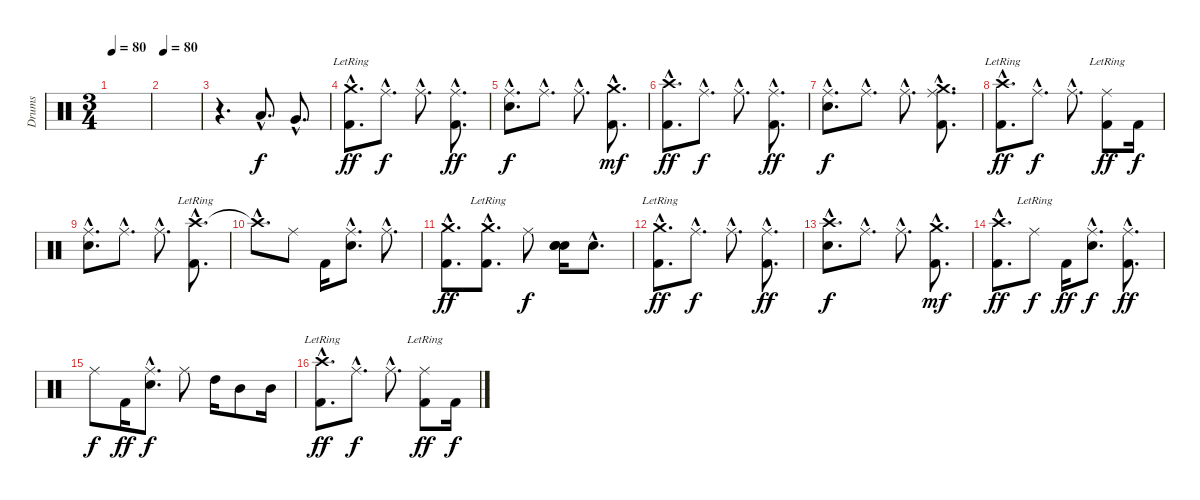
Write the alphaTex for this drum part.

\track ("Drums" "Drums") {instrument percussion}
\staff {score}
\articulation defaults
\ts (3 4)
\tempo 80
\clef neutral
\ks c
|
\tempo 80
|
r.4{d} "Low Tom (hit)"{hac}.8{d} "Very Low Tom (hit)"{hac}.8{d} |
("Crash medium (hit)"{hac lr} "Kick (hit) 2"{hac}).8{d dy ff} "Ride (middle)"{hac}.8{d dy f} "Ride (middle)"{hac}.8{d} ("Ride (middle)"{hac} "Kick (hit) 2"{hac}).8{d dy ff} |
("Ride (middle)"{hac} "Snare (hit) 2"{hac}).8{d dy f} "Ride (middle)"{hac}.8{d} "Ride (middle)"{hac}.8{d} ("Crash medium (hit)"{hac} "Kick (hit) 2"{hac}).8{d dy mf} |
("Crash high (hit)"{hac} "Kick (hit) 2"{hac}).8{d dy ff} "Ride (middle)"{hac}.8{d dy f} "Ride (middle)"{hac}.8{d} ("Ride (middle)"{hac} "Kick (hit) 2"{hac}).8{d dy ff} |
("Ride (middle)"{hac} "Snare (hit) 2"{hac}).8{d dy f} "Ride (middle)"{hac}.8{d} "Ride (middle)"{hac}.8{d} ("Crash medium (hit)"{hac} "Ride (middle)"{hac} "Kick (hit) 2"{hac}).8{d} |
("Crash high (hit)"{hac lr} "Kick (hit) 2"{hac}).8{d dy ff} "Ride (middle)"{hac}.8{d dy f} "Ride (middle)"{hac}.8{d} ("Ride (middle)"{lr} "Kick (hit) 2").8{dy ff} "Kick (hit) 2".16{dy f} |
("Ride (middle)"{hac} "Snare (hit) 2"{hac}).8{d} "Ride (middle)"{hac}.8{d} "Ride (middle)"{hac}.8{d} ("Crash high (hit)"{hac lr} "Kick (hit) 2"{hac}).8{d} |
"Crash high (hit)"{hac t}.8{d} "Ride (middle)".8 "Kick (hit) 2".16 ("Ride (middle)"{hac} "Snare (hit) 2"{hac}).8{d} "Ride (middle)"{hac}.8{d} |
("Crash medium (hit)"{hac} "Kick (hit) 2"{hac}).8{d dy ff} ("Crash medium (hit)"{hac lr} "Kick (hit) 2"{hac}).8{d} "Ride (middle)".8{dy f} ("Snare (hit) 2" "Snare (hit) 2" "Snare (hit) 2").16{bd 480} "Snare (hit) 2"{hac}.8{d} |
("Crash medium (hit)"{hac lr} "Kick (hit) 2"{hac}).8{d dy ff} "Ride (middle)"{hac}.8{d dy f} "Ride (middle)"{hac}.8{d} ("Ride (middle)"{hac} "Kick (hit) 2"{hac}).8{d dy ff} |
("Crash high (hit)"{hac} "Snare (hit) 2"{hac}).8{d dy f} "Ride (middle)"{hac}.8{d} "Ride (middle)"{hac}.8{d} ("Crash medium (hit)"{hac} "Kick (hit) 2"{hac}).8{d dy mf} |
("Crash high (hit)"{hac} "Kick (hit) 2"{hac}).8{d dy ff} "Ride (middle)"{lr}.8{dy f} "Kick (hit) 2".16{dy ff} ("Ride (middle)"{hac} "Snare (hit) 2"{hac}).8{d dy f} ("Ride (middle)"{hac} "Kick (hit) 2"{hac}).8{d dy ff} |
"Ride (middle)".8{dy f} "Kick (hit) 2".16{dy ff} ("Ride (middle)"{hac} "Snare (hit) 2"{hac}).8{d dy f} "Ride (middle)".8 "High Tom (hit)".16 "Mid Tom (hit)".8 "Mid Tom (hit)".16 |
("Crash high (hit)"{hac lr} "Kick (hit) 2"{hac}).8{d dy ff} "Ride (middle)"{hac}.8{d dy f} "Ride (middle)"{hac}.8{d} ("Ride (middle)"{lr} "Kick (hit) 2").8{dy ff} "Kick (hit) 2".16{dy f}
